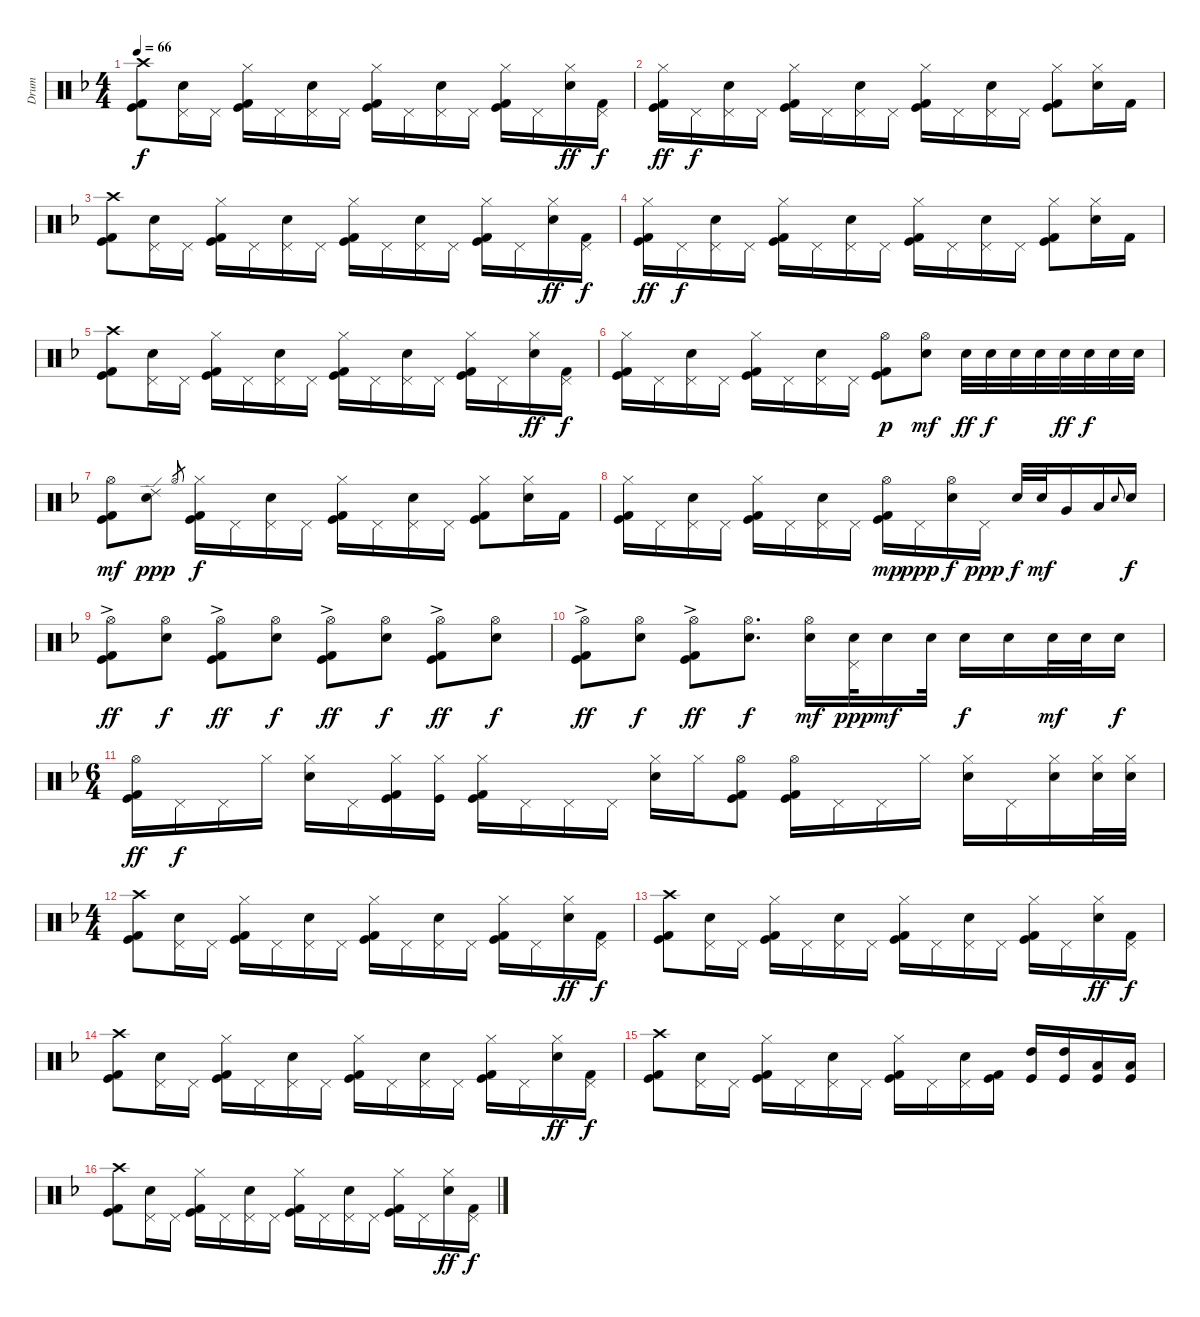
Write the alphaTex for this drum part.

\track ("Drum" "Drum") {instrument percussion}
\staff {score}
\articulation defaults
\ts (4 4)
\tempo 66
\clef neutral
\ks dminor
("Kick (hit)" "Kick (hit) 2" "Crash high (hit)").8{dy f} ("Electric Snare (hit)" "Pedal Hi-Hat (hit)").16 "Pedal Hi-Hat (hit)".16 ("Kick (hit)" "Kick (hit) 2" "Hi-Hat (closed)").16 "Pedal Hi-Hat (hit)".16 ("Electric Snare (hit)" "Pedal Hi-Hat (hit)").16 "Pedal Hi-Hat (hit)".16 ("Kick (hit)" "Kick (hit) 2" "Hi-Hat (closed)").16 "Pedal Hi-Hat (hit)".16 ("Electric Snare (hit)" "Pedal Hi-Hat (hit)").16 "Pedal Hi-Hat (hit)".16 ("Kick (hit)" "Kick (hit) 2" "Hi-Hat (closed)").16 "Pedal Hi-Hat (hit)".16 ("Electric Snare (hit)" "Hi-Hat (closed)").16{dy ff} ("Kick (hit) 2" "Pedal Hi-Hat (hit)").16{dy f} |
("Kick (hit)" "Kick (hit) 2" "Hi-Hat (closed)").16{dy ff} "Pedal Hi-Hat (hit)".16{dy f} ("Electric Snare (hit)" "Pedal Hi-Hat (hit)").16 "Pedal Hi-Hat (hit)".16 ("Kick (hit)" "Kick (hit) 2" "Hi-Hat (closed)").16 "Pedal Hi-Hat (hit)".16 ("Electric Snare (hit)" "Pedal Hi-Hat (hit)").16 "Pedal Hi-Hat (hit)".16 ("Kick (hit)" "Kick (hit) 2" "Hi-Hat (closed)").16 "Pedal Hi-Hat (hit)".16 ("Electric Snare (hit)" "Pedal Hi-Hat (hit)").16 "Pedal Hi-Hat (hit)".16 ("Kick (hit)" "Kick (hit) 2" "Hi-Hat (closed)").8 ("Electric Snare (hit)" "Hi-Hat (closed)").16 "Kick (hit) 2".16 |
("Kick (hit)" "Kick (hit) 2" "Crash high (hit)").8 ("Electric Snare (hit)" "Pedal Hi-Hat (hit)").16 "Pedal Hi-Hat (hit)".16 ("Kick (hit)" "Kick (hit) 2" "Hi-Hat (closed)").16 "Pedal Hi-Hat (hit)".16 ("Electric Snare (hit)" "Pedal Hi-Hat (hit)").16 "Pedal Hi-Hat (hit)".16 ("Kick (hit)" "Kick (hit) 2" "Hi-Hat (closed)").16 "Pedal Hi-Hat (hit)".16 ("Electric Snare (hit)" "Pedal Hi-Hat (hit)").16 "Pedal Hi-Hat (hit)".16 ("Kick (hit)" "Kick (hit) 2" "Hi-Hat (closed)").16 "Pedal Hi-Hat (hit)".16 ("Electric Snare (hit)" "Hi-Hat (closed)").16{dy ff} ("Kick (hit) 2" "Pedal Hi-Hat (hit)").16{dy f} |
("Kick (hit)" "Kick (hit) 2" "Hi-Hat (closed)").16{dy ff} "Pedal Hi-Hat (hit)".16{dy f} ("Electric Snare (hit)" "Pedal Hi-Hat (hit)").16 "Pedal Hi-Hat (hit)".16 ("Kick (hit)" "Kick (hit) 2" "Hi-Hat (closed)").16 "Pedal Hi-Hat (hit)".16 ("Electric Snare (hit)" "Pedal Hi-Hat (hit)").16 "Pedal Hi-Hat (hit)".16 ("Kick (hit)" "Kick (hit) 2" "Hi-Hat (closed)").16 "Pedal Hi-Hat (hit)".16 ("Electric Snare (hit)" "Pedal Hi-Hat (hit)").16 "Pedal Hi-Hat (hit)".16 ("Kick (hit)" "Kick (hit) 2" "Hi-Hat (closed)").8 ("Electric Snare (hit)" "Hi-Hat (closed)").16 "Kick (hit) 2".16 |
("Kick (hit)" "Kick (hit) 2" "Crash high (hit)").8 ("Electric Snare (hit)" "Pedal Hi-Hat (hit)").16 "Pedal Hi-Hat (hit)".16 ("Kick (hit)" "Kick (hit) 2" "Hi-Hat (closed)").16 "Pedal Hi-Hat (hit)".16 ("Electric Snare (hit)" "Pedal Hi-Hat (hit)").16 "Pedal Hi-Hat (hit)".16 ("Kick (hit)" "Kick (hit) 2" "Hi-Hat (closed)").16 "Pedal Hi-Hat (hit)".16 ("Electric Snare (hit)" "Pedal Hi-Hat (hit)").16 "Pedal Hi-Hat (hit)".16 ("Kick (hit)" "Kick (hit) 2" "Hi-Hat (closed)").16 "Pedal Hi-Hat (hit)".16 ("Electric Snare (hit)" "Hi-Hat (closed)").16{dy ff} ("Kick (hit) 2" "Pedal Hi-Hat (hit)").16{dy f} |
("Kick (hit)" "Kick (hit) 2" "Hi-Hat (closed)").16 "Pedal Hi-Hat (hit)".16 ("Electric Snare (hit)" "Pedal Hi-Hat (hit)").16 "Pedal Hi-Hat (hit)".16 ("Kick (hit)" "Kick (hit) 2" "Hi-Hat (closed)").16 "Pedal Hi-Hat (hit)".16 ("Electric Snare (hit)" "Pedal Hi-Hat (hit)").16 "Pedal Hi-Hat (hit)".16 ("Kick (hit)" "Kick (hit) 2" "Hi-Hat (open)").8{dy p} ("Electric Snare (hit)" "Hi-Hat (open)").8{dy mf} "Electric Snare (hit)".32{dy ff} "Electric Snare (hit)".32{dy f} "Electric Snare (hit)".32 "Electric Snare (hit)".32 "Electric Snare (hit)".32{dy ff} "Electric Snare (hit)".32{dy f} "Electric Snare (hit)".32 "Electric Snare (hit)".32 |
("Kick (hit)" "Kick (hit) 2" "Hi-Hat (open)").8{dy mf} ("Electric Snare (hit)" "Ride (edge) 2").8{dy ppp} "Hi-Hat (open)".8{gr} ("Kick (hit)" "Kick (hit) 2" "Hi-Hat (closed)").16{dy f} "Pedal Hi-Hat (hit)".16 ("Electric Snare (hit)" "Pedal Hi-Hat (hit)").16 "Pedal Hi-Hat (hit)".16 ("Kick (hit)" "Kick (hit) 2" "Hi-Hat (closed)").16 "Pedal Hi-Hat (hit)".16 ("Electric Snare (hit)" "Pedal Hi-Hat (hit)").16 "Pedal Hi-Hat (hit)".16 ("Kick (hit)" "Kick (hit) 2" "Hi-Hat (closed)").8 ("Electric Snare (hit)" "Hi-Hat (closed)").16 "Kick (hit) 2".16 |
("Kick (hit)" "Kick (hit) 2" "Hi-Hat (closed)").16 "Pedal Hi-Hat (hit)".16 ("Electric Snare (hit)" "Pedal Hi-Hat (hit)").16 "Pedal Hi-Hat (hit)".16 ("Kick (hit)" "Kick (hit) 2" "Hi-Hat (closed)").16 "Pedal Hi-Hat (hit)".16 ("Electric Snare (hit)" "Pedal Hi-Hat (hit)").16 "Pedal Hi-Hat (hit)".16 ("Kick (hit)" "Kick (hit) 2" "Hi-Hat (open)").16{dy mp} "Pedal Hi-Hat (hit)".16{dy ppp} ("Electric Snare (hit)" "Hi-Hat (open)").16{dy f} "Pedal Hi-Hat (hit)".16{dy ppp} "Electric Snare (hit)".32{dy f} "Electric Snare (hit)".32{dy mf} "Very Low Tom (hit)".16 "Low Floor Tom (hit)".16 "Electric Snare (hit)".8{gr onbeat} "Electric Snare (hit)".16{dy f} |
("Kick (hit)" "Kick (hit) 2" "Hi-Hat (open)"{ac}).8{dy ff} ("Electric Snare (hit)" "Hi-Hat (open)").8{dy f} ("Kick (hit)" "Kick (hit) 2" "Hi-Hat (open)"{ac}).8{dy ff} ("Electric Snare (hit)" "Hi-Hat (open)").8{dy f} ("Kick (hit)" "Kick (hit) 2" "Hi-Hat (open)"{ac}).8{dy ff} ("Electric Snare (hit)" "Hi-Hat (open)").8{dy f} ("Kick (hit)" "Kick (hit) 2" "Hi-Hat (open)"{ac}).8{dy ff} ("Electric Snare (hit)" "Hi-Hat (open)").8{dy f} |
("Kick (hit)" "Kick (hit) 2" "Hi-Hat (open)"{ac}).8{dy ff} ("Electric Snare (hit)" "Hi-Hat (open)").8{dy f} ("Kick (hit)" "Kick (hit) 2" "Hi-Hat (open)"{ac}).8{dy ff} ("Electric Snare (hit)" "Hi-Hat (open)").8{d dy f} ("Electric Snare (hit)" "Hi-Hat (open)").16{dy mf} ("Electric Snare (hit)" "Pedal Hi-Hat (hit)").32{dy ppp} "Electric Snare (hit)".16{dy mf} "Electric Snare (hit)".32 "Electric Snare (hit)".16{dy f} "Electric Snare (hit)".16 "Electric Snare (hit)".32{dy mf} "Electric Snare (hit)".32 "Electric Snare (hit)".16{dy f} |
\ts (6 4)
("Kick (hit)" "Kick (hit) 2" "Hi-Hat (open)").16{dy ff} "Pedal Hi-Hat (hit)".16{dy f} "Pedal Hi-Hat (hit)".16 "Hi-Hat (closed)".16 ("Electric Snare (hit)" "Hi-Hat (closed)").16 "Pedal Hi-Hat (hit)".16 ("Kick (hit)" "Kick (hit) 2" "Hi-Hat (closed)").16 ("Kick (hit)" "Hi-Hat (closed)").16 ("Kick (hit)" "Kick (hit) 2" "Hi-Hat (closed)").16 "Pedal Hi-Hat (hit)".16 "Pedal Hi-Hat (hit)".16 "Pedal Hi-Hat (hit)".16 ("Electric Snare (hit)" "Hi-Hat (closed)").16 "Hi-Hat (closed)".16 ("Kick (hit)" "Kick (hit) 2" "Hi-Hat (open)").8 ("Kick (hit)" "Kick (hit) 2" "Hi-Hat (open)").16 "Pedal Hi-Hat (hit)".16 "Pedal Hi-Hat (hit)".16 "Hi-Hat (closed)".16 ("Electric Snare (hit)" "Hi-Hat (closed)").16 "Pedal Hi-Hat (hit)".16 ("Electric Snare (hit)" "Hi-Hat (closed)").16 ("Electric Snare (hit)" "Hi-Hat (closed)").32 ("Electric Snare (hit)" "Hi-Hat (closed)").32 |
\ts (4 4)
("Kick (hit)" "Kick (hit) 2" "Crash high (hit)").8 ("Electric Snare (hit)" "Pedal Hi-Hat (hit)").16 "Pedal Hi-Hat (hit)".16 ("Kick (hit)" "Kick (hit) 2" "Hi-Hat (closed)").16 "Pedal Hi-Hat (hit)".16 ("Electric Snare (hit)" "Pedal Hi-Hat (hit)").16 "Pedal Hi-Hat (hit)".16 ("Kick (hit)" "Kick (hit) 2" "Hi-Hat (closed)").16 "Pedal Hi-Hat (hit)".16 ("Electric Snare (hit)" "Pedal Hi-Hat (hit)").16 "Pedal Hi-Hat (hit)".16 ("Kick (hit)" "Kick (hit) 2" "Hi-Hat (closed)").16 "Pedal Hi-Hat (hit)".16 ("Electric Snare (hit)" "Hi-Hat (closed)").16{dy ff} ("Kick (hit) 2" "Pedal Hi-Hat (hit)").16{dy f} |
("Kick (hit)" "Kick (hit) 2" "Crash high (hit)").8 ("Electric Snare (hit)" "Pedal Hi-Hat (hit)").16 "Pedal Hi-Hat (hit)".16 ("Kick (hit)" "Kick (hit) 2" "Hi-Hat (closed)").16 "Pedal Hi-Hat (hit)".16 ("Electric Snare (hit)" "Pedal Hi-Hat (hit)").16 "Pedal Hi-Hat (hit)".16 ("Kick (hit)" "Kick (hit) 2" "Hi-Hat (closed)").16 "Pedal Hi-Hat (hit)".16 ("Electric Snare (hit)" "Pedal Hi-Hat (hit)").16 "Pedal Hi-Hat (hit)".16 ("Kick (hit)" "Kick (hit) 2" "Hi-Hat (closed)").16 "Pedal Hi-Hat (hit)".16 ("Electric Snare (hit)" "Hi-Hat (closed)").16{dy ff} ("Kick (hit) 2" "Pedal Hi-Hat (hit)").16{dy f} |
("Kick (hit)" "Kick (hit) 2" "Crash high (hit)").8 ("Electric Snare (hit)" "Pedal Hi-Hat (hit)").16 "Pedal Hi-Hat (hit)".16 ("Kick (hit)" "Kick (hit) 2" "Hi-Hat (closed)").16 "Pedal Hi-Hat (hit)".16 ("Electric Snare (hit)" "Pedal Hi-Hat (hit)").16 "Pedal Hi-Hat (hit)".16 ("Kick (hit)" "Kick (hit) 2" "Hi-Hat (closed)").16 "Pedal Hi-Hat (hit)".16 ("Electric Snare (hit)" "Pedal Hi-Hat (hit)").16 "Pedal Hi-Hat (hit)".16 ("Kick (hit)" "Kick (hit) 2" "Hi-Hat (closed)").16 "Pedal Hi-Hat (hit)".16 ("Electric Snare (hit)" "Hi-Hat (closed)").16{dy ff} ("Kick (hit) 2" "Pedal Hi-Hat (hit)").16{dy f} |
("Kick (hit)" "Kick (hit) 2" "Crash high (hit)").8 ("Electric Snare (hit)" "Pedal Hi-Hat (hit)").16 "Pedal Hi-Hat (hit)".16 ("Kick (hit)" "Kick (hit) 2" "Hi-Hat (closed)").16 "Pedal Hi-Hat (hit)".16 ("Electric Snare (hit)" "Pedal Hi-Hat (hit)").16 "Pedal Hi-Hat (hit)".16 ("Kick (hit)" "Kick (hit) 2" "Hi-Hat (closed)").16 "Pedal Hi-Hat (hit)".16 ("Electric Snare (hit)" "Pedal Hi-Hat (hit)").16 ("Kick (hit) 2" "Kick (hit)").16 ("High Tom (hit)" "Kick (hit)").16 ("High Tom (hit)" "Kick (hit)").16 ("Low Tom (hit)" "Kick (hit)").16 ("Low Tom (hit)" "Kick (hit)").16 |
("Kick (hit)" "Kick (hit) 2" "Crash high (hit)").8 ("Electric Snare (hit)" "Pedal Hi-Hat (hit)").16 "Pedal Hi-Hat (hit)".16 ("Kick (hit)" "Kick (hit) 2" "Hi-Hat (closed)").16 "Pedal Hi-Hat (hit)".16 ("Electric Snare (hit)" "Pedal Hi-Hat (hit)").16 "Pedal Hi-Hat (hit)".16 ("Kick (hit)" "Kick (hit) 2" "Hi-Hat (closed)").16 "Pedal Hi-Hat (hit)".16 ("Electric Snare (hit)" "Pedal Hi-Hat (hit)").16 "Pedal Hi-Hat (hit)".16 ("Kick (hit)" "Kick (hit) 2" "Hi-Hat (closed)").16 "Pedal Hi-Hat (hit)".16 ("Electric Snare (hit)" "Hi-Hat (closed)").16{dy ff} ("Kick (hit) 2" "Pedal Hi-Hat (hit)").16{dy f}
